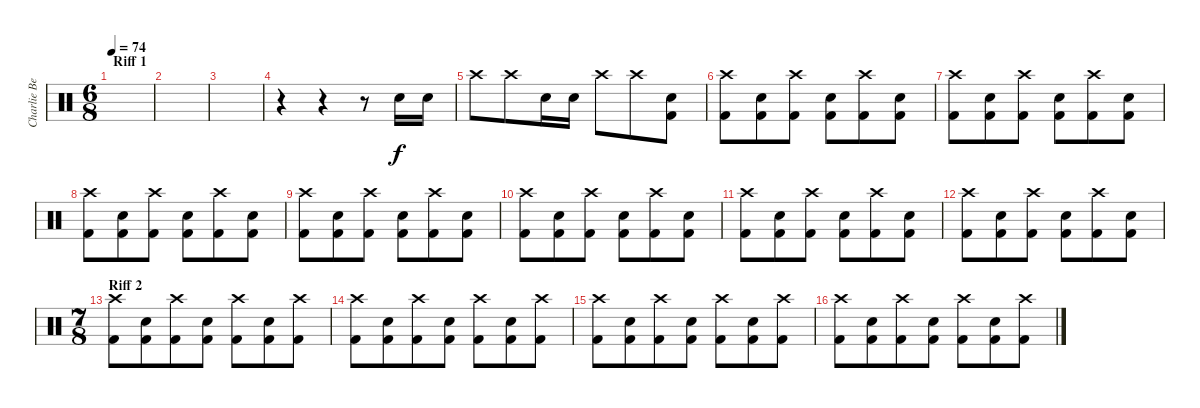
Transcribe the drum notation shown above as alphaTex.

\track ("Charlie Benante" "Charlie Be") {instrument percussion}
\staff {score}
\articulation defaults
\ts (6 8)
\section ("" "Riff 1")
\tempo 74
\clef neutral
\ks c
|
|
|
r.4 r.4 r.8 "Snare (hit) 2".16 "Snare (hit) 2".16 |
"Crash high (hit)".8 "Crash high (hit)".8 "Snare (hit) 2".16 "Snare (hit) 2".16 "Crash high (hit)".8 "Crash high (hit)".8 ("Kick (hit) 2" "Snare (hit) 2").8 |
("Kick (hit) 2" "Crash high (hit)").8 ("Kick (hit) 2" "Snare (hit) 2").8 ("Kick (hit) 2" "Crash high (hit)").8 ("Kick (hit) 2" "Snare (hit) 2").8 ("Kick (hit) 2" "Crash high (hit)").8 ("Kick (hit) 2" "Snare (hit) 2").8 |
("Kick (hit) 2" "Crash high (hit)").8 ("Kick (hit) 2" "Snare (hit) 2").8 ("Kick (hit) 2" "Crash high (hit)").8 ("Kick (hit) 2" "Snare (hit) 2").8 ("Kick (hit) 2" "Crash high (hit)").8 ("Kick (hit) 2" "Snare (hit) 2").8 |
("Kick (hit) 2" "Crash high (hit)").8 ("Kick (hit) 2" "Snare (hit) 2").8 ("Kick (hit) 2" "Crash high (hit)").8 ("Kick (hit) 2" "Snare (hit) 2").8 ("Kick (hit) 2" "Crash high (hit)").8 ("Kick (hit) 2" "Snare (hit) 2").8 |
("Kick (hit) 2" "Crash high (hit)").8 ("Kick (hit) 2" "Snare (hit) 2").8 ("Kick (hit) 2" "Crash high (hit)").8 ("Kick (hit) 2" "Snare (hit) 2").8 ("Kick (hit) 2" "Crash high (hit)").8 ("Kick (hit) 2" "Snare (hit) 2").8 |
("Kick (hit) 2" "Crash high (hit)").8 ("Kick (hit) 2" "Snare (hit) 2").8 ("Kick (hit) 2" "Crash high (hit)").8 ("Kick (hit) 2" "Snare (hit) 2").8 ("Kick (hit) 2" "Crash high (hit)").8 ("Kick (hit) 2" "Snare (hit) 2").8 |
("Kick (hit) 2" "Crash high (hit)").8 ("Kick (hit) 2" "Snare (hit) 2").8 ("Kick (hit) 2" "Crash high (hit)").8 ("Kick (hit) 2" "Snare (hit) 2").8 ("Kick (hit) 2" "Crash high (hit)").8 ("Kick (hit) 2" "Snare (hit) 2").8 |
("Kick (hit) 2" "Crash high (hit)").8 ("Kick (hit) 2" "Snare (hit) 2").8 ("Kick (hit) 2" "Crash high (hit)").8 ("Kick (hit) 2" "Snare (hit) 2").8 ("Kick (hit) 2" "Crash high (hit)").8 ("Kick (hit) 2" "Snare (hit) 2").8 |
\ts (7 8)
\section ("" "Riff 2")
("Kick (hit) 2" "Crash high (hit)").8 ("Kick (hit) 2" "Snare (hit) 2").8 ("Kick (hit) 2" "Crash high (hit)").8 ("Kick (hit) 2" "Snare (hit) 2").8 ("Kick (hit) 2" "Crash high (hit)").8 ("Kick (hit) 2" "Snare (hit) 2").8 ("Kick (hit) 2" "Crash high (hit)").8 |
("Kick (hit) 2" "Crash high (hit)").8 ("Kick (hit) 2" "Snare (hit) 2").8 ("Kick (hit) 2" "Crash high (hit)").8 ("Kick (hit) 2" "Snare (hit) 2").8 ("Kick (hit) 2" "Crash high (hit)").8 ("Kick (hit) 2" "Snare (hit) 2").8 ("Kick (hit) 2" "Crash high (hit)").8 |
("Kick (hit) 2" "Crash high (hit)").8 ("Kick (hit) 2" "Snare (hit) 2").8 ("Kick (hit) 2" "Crash high (hit)").8 ("Kick (hit) 2" "Snare (hit) 2").8 ("Kick (hit) 2" "Crash high (hit)").8 ("Kick (hit) 2" "Snare (hit) 2").8 ("Kick (hit) 2" "Crash high (hit)").8 |
("Kick (hit) 2" "Crash high (hit)").8 ("Kick (hit) 2" "Snare (hit) 2").8 ("Kick (hit) 2" "Crash high (hit)").8 ("Kick (hit) 2" "Snare (hit) 2").8 ("Kick (hit) 2" "Crash high (hit)").8 ("Kick (hit) 2" "Snare (hit) 2").8 ("Kick (hit) 2" "Crash high (hit)").8
